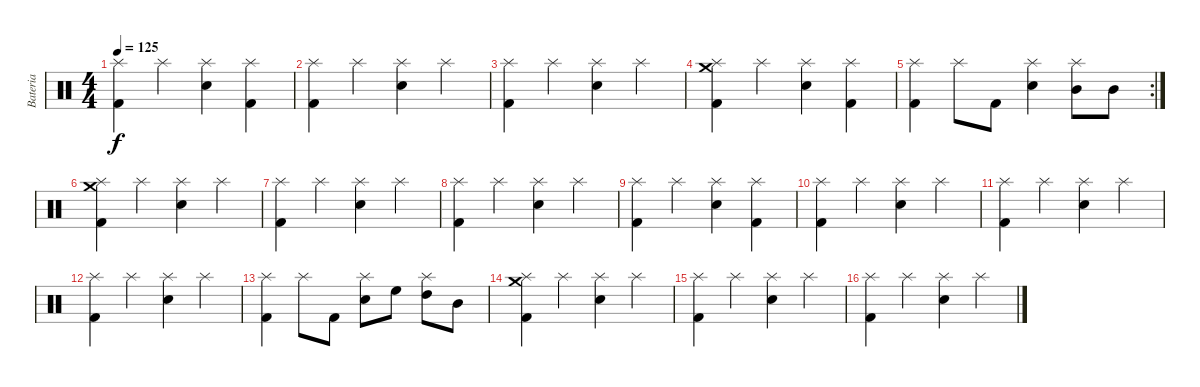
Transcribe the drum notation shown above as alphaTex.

\track ("Bateria" "Bateria") {instrument percussion}
\staff {score}
\articulation defaults
\ts (4 4)
\tempo 125
\clef neutral
\ks c
("Kick (hit) 2" "Splash (hit)").4{dy f} "Splash (hit)".4 ("Electric Snare (hit)" "Splash (hit)").4 ("Kick (hit) 2" "Splash (hit)").4 |
("Kick (hit) 2" "Splash (hit)").4 "Splash (hit)".4 ("Electric Snare (hit)" "Splash (hit)").4 "Splash (hit)".4 |
("Kick (hit) 2" "Splash (hit)").4 "Splash (hit)".4 ("Electric Snare (hit)" "Splash (hit)").4 "Splash (hit)".4 |
("Kick (hit) 2" "Splash (hit)" "Crash medium (hit)").4 "Splash (hit)".4 ("Electric Snare (hit)" "Splash (hit)").4 ("Kick (hit) 2" "Splash (hit)").4 |
\rc 2
("Kick (hit) 2" "Splash (hit)").4 "Splash (hit)".8 "Kick (hit) 2".8 ("Electric Snare (hit)" "Splash (hit)").4 ("Mid Tom (hit)" "Splash (hit)").8 "Mid Tom (hit)".8 |
("Kick (hit) 2" "Splash (hit)" "Crash medium (hit)").4 "Splash (hit)".4 ("Electric Snare (hit)" "Splash (hit)").4 "Splash (hit)".4 |
("Kick (hit) 2" "Splash (hit)").4 "Splash (hit)".4 ("Electric Snare (hit)" "Splash (hit)").4 "Splash (hit)".4 |
("Kick (hit) 2" "Splash (hit)").4 "Splash (hit)".4 ("Electric Snare (hit)" "Splash (hit)").4 "Splash (hit)".4 |
("Kick (hit) 2" "Splash (hit)").4 "Splash (hit)".4 ("Electric Snare (hit)" "Splash (hit)").4 ("Kick (hit) 2" "Splash (hit)").4 |
("Kick (hit) 2" "Splash (hit)").4 "Splash (hit)".4 ("Electric Snare (hit)" "Splash (hit)").4 "Splash (hit)".4 |
("Kick (hit) 2" "Splash (hit)").4 "Splash (hit)".4 ("Electric Snare (hit)" "Splash (hit)").4 "Splash (hit)".4 |
("Kick (hit) 2" "Splash (hit)").4 "Splash (hit)".4 ("Electric Snare (hit)" "Splash (hit)").4 "Splash (hit)".4 |
("Kick (hit) 2" "Splash (hit)").4 "Splash (hit)".8 "Kick (hit) 2".8 ("Electric Snare (hit)" "Splash (hit)").8 "High Floor Tom (hit)".8 ("High Tom (hit)" "Splash (hit)").8 "Mid Tom (hit)".8 |
("Kick (hit) 2" "Splash (hit)" "Crash medium (hit)").4 "Splash (hit)".4 ("Electric Snare (hit)" "Splash (hit)").4 "Splash (hit)".4 |
("Kick (hit) 2" "Splash (hit)").4 "Splash (hit)".4 ("Electric Snare (hit)" "Splash (hit)").4 "Splash (hit)".4 |
("Kick (hit) 2" "Splash (hit)").4 "Splash (hit)".4 ("Electric Snare (hit)" "Splash (hit)").4 "Splash (hit)".4
